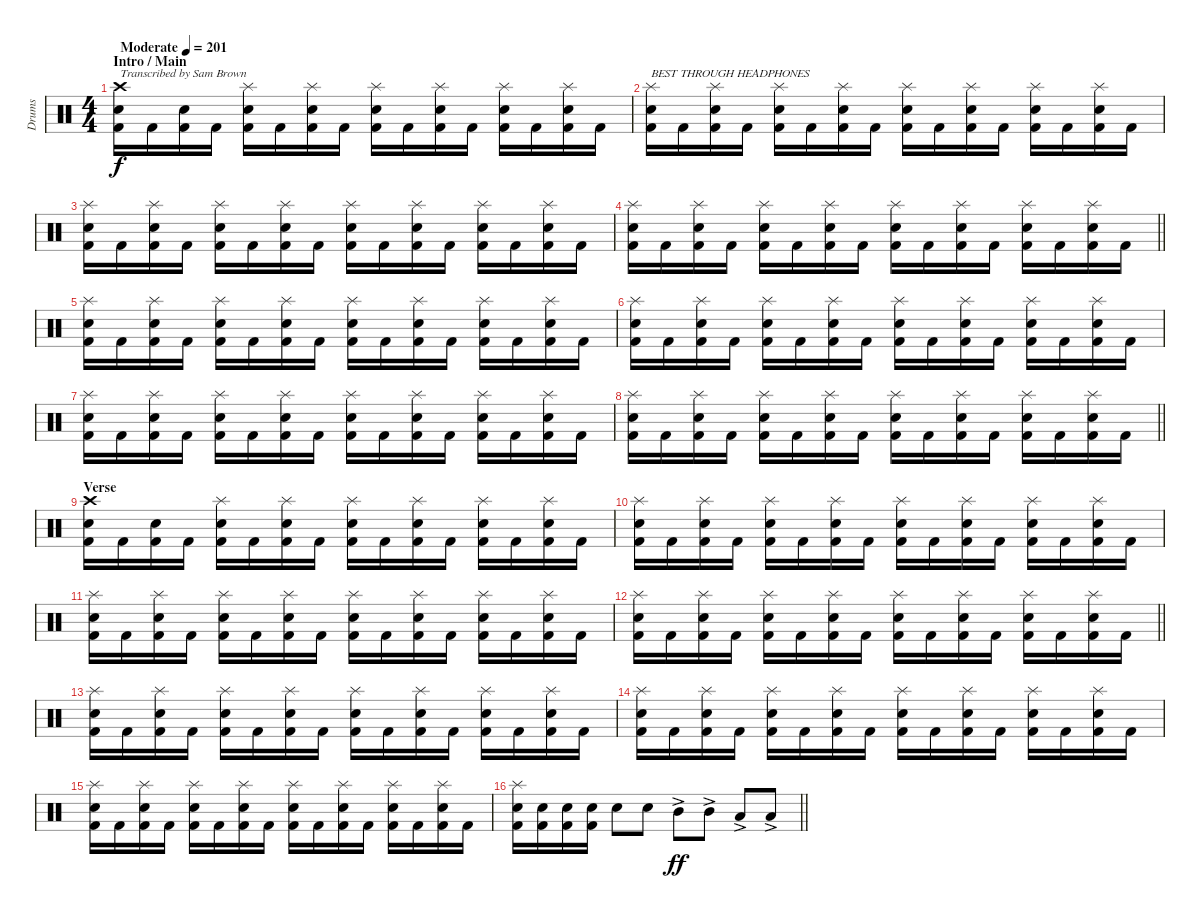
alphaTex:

\track ("Drums" "Drums") {instrument percussion}
\staff {score}
\articulation defaults
\ts (4 4)
\section ("" "Intro / Main")
\tempo (201 "Moderate")
\clef neutral
\ks c
("Kick (hit) 2" "Snare (hit) 2" "Crash high (hit)").16{txt "Transcribed by Sam Brown" dy f} "Kick (hit) 2".16 ("Kick (hit) 2" "Snare (hit) 2").16 "Kick (hit) 2".16 ("Kick (hit) 2" "Snare (hit) 2" "Splash (hit)").16 "Kick (hit) 2".16 ("Kick (hit) 2" "Snare (hit) 2" "Splash (hit)").16 "Kick (hit) 2".16 ("Kick (hit) 2" "Snare (hit) 2" "Splash (hit)").16 "Kick (hit) 2".16 ("Kick (hit) 2" "Snare (hit) 2" "Splash (hit)").16 "Kick (hit) 2".16 ("Kick (hit) 2" "Snare (hit) 2" "Splash (hit)").16 "Kick (hit) 2".16 ("Kick (hit) 2" "Snare (hit) 2" "Splash (hit)").16 "Kick (hit) 2".16 |
("Kick (hit) 2" "Snare (hit) 2" "Splash (hit)").16{txt "BEST THROUGH HEADPHONES"} "Kick (hit) 2".16 ("Kick (hit) 2" "Snare (hit) 2" "Splash (hit)").16 "Kick (hit) 2".16 ("Kick (hit) 2" "Snare (hit) 2" "Splash (hit)").16 "Kick (hit) 2".16 ("Kick (hit) 2" "Snare (hit) 2" "Splash (hit)").16 "Kick (hit) 2".16 ("Kick (hit) 2" "Snare (hit) 2" "Splash (hit)").16 "Kick (hit) 2".16 ("Kick (hit) 2" "Snare (hit) 2" "Splash (hit)").16 "Kick (hit) 2".16 ("Kick (hit) 2" "Snare (hit) 2" "Splash (hit)").16 "Kick (hit) 2".16 ("Kick (hit) 2" "Snare (hit) 2" "Splash (hit)").16 "Kick (hit) 2".16 |
("Kick (hit) 2" "Snare (hit) 2" "Splash (hit)").16 "Kick (hit) 2".16 ("Kick (hit) 2" "Snare (hit) 2" "Splash (hit)").16 "Kick (hit) 2".16 ("Kick (hit) 2" "Snare (hit) 2" "Splash (hit)").16 "Kick (hit) 2".16 ("Kick (hit) 2" "Snare (hit) 2" "Splash (hit)").16 "Kick (hit) 2".16 ("Kick (hit) 2" "Snare (hit) 2" "Splash (hit)").16 "Kick (hit) 2".16 ("Kick (hit) 2" "Snare (hit) 2" "Splash (hit)").16 "Kick (hit) 2".16 ("Kick (hit) 2" "Snare (hit) 2" "Splash (hit)").16 "Kick (hit) 2".16 ("Kick (hit) 2" "Snare (hit) 2" "Splash (hit)").16 "Kick (hit) 2".16 |
\barLineRight lightlight
("Kick (hit) 2" "Snare (hit) 2" "Splash (hit)").16 "Kick (hit) 2".16 ("Kick (hit) 2" "Snare (hit) 2" "Splash (hit)").16 "Kick (hit) 2".16 ("Kick (hit) 2" "Snare (hit) 2" "Splash (hit)").16 "Kick (hit) 2".16 ("Kick (hit) 2" "Snare (hit) 2" "Splash (hit)").16 "Kick (hit) 2".16 ("Kick (hit) 2" "Snare (hit) 2" "Splash (hit)").16 "Kick (hit) 2".16 ("Kick (hit) 2" "Snare (hit) 2" "Splash (hit)").16 "Kick (hit) 2".16 ("Kick (hit) 2" "Snare (hit) 2" "Splash (hit)").16 "Kick (hit) 2".16 ("Kick (hit) 2" "Snare (hit) 2" "Splash (hit)").16 "Kick (hit) 2".16 |
\section ("" "")
("Kick (hit) 2" "Snare (hit) 2" "Splash (hit)").16 "Kick (hit) 2".16 ("Kick (hit) 2" "Snare (hit) 2" "Splash (hit)").16 "Kick (hit) 2".16 ("Kick (hit) 2" "Snare (hit) 2" "Splash (hit)").16 "Kick (hit) 2".16 ("Kick (hit) 2" "Snare (hit) 2" "Splash (hit)").16 "Kick (hit) 2".16 ("Kick (hit) 2" "Snare (hit) 2" "Splash (hit)").16 "Kick (hit) 2".16 ("Kick (hit) 2" "Snare (hit) 2" "Splash (hit)").16 "Kick (hit) 2".16 ("Kick (hit) 2" "Snare (hit) 2" "Splash (hit)").16 "Kick (hit) 2".16 ("Kick (hit) 2" "Snare (hit) 2" "Splash (hit)").16 "Kick (hit) 2".16 |
("Kick (hit) 2" "Snare (hit) 2" "Splash (hit)").16 "Kick (hit) 2".16 ("Kick (hit) 2" "Snare (hit) 2" "Splash (hit)").16 "Kick (hit) 2".16 ("Kick (hit) 2" "Snare (hit) 2" "Splash (hit)").16 "Kick (hit) 2".16 ("Kick (hit) 2" "Snare (hit) 2" "Splash (hit)").16 "Kick (hit) 2".16 ("Kick (hit) 2" "Snare (hit) 2" "Splash (hit)").16 "Kick (hit) 2".16 ("Kick (hit) 2" "Snare (hit) 2" "Splash (hit)").16 "Kick (hit) 2".16 ("Kick (hit) 2" "Snare (hit) 2" "Splash (hit)").16 "Kick (hit) 2".16 ("Kick (hit) 2" "Snare (hit) 2" "Splash (hit)").16 "Kick (hit) 2".16 |
("Kick (hit) 2" "Snare (hit) 2" "Splash (hit)").16 "Kick (hit) 2".16 ("Kick (hit) 2" "Snare (hit) 2" "Splash (hit)").16 "Kick (hit) 2".16 ("Kick (hit) 2" "Snare (hit) 2" "Splash (hit)").16 "Kick (hit) 2".16 ("Kick (hit) 2" "Snare (hit) 2" "Splash (hit)").16 "Kick (hit) 2".16 ("Kick (hit) 2" "Snare (hit) 2" "Splash (hit)").16 "Kick (hit) 2".16 ("Kick (hit) 2" "Snare (hit) 2" "Splash (hit)").16 "Kick (hit) 2".16 ("Kick (hit) 2" "Snare (hit) 2" "Splash (hit)").16 "Kick (hit) 2".16 ("Kick (hit) 2" "Snare (hit) 2" "Splash (hit)").16 "Kick (hit) 2".16 |
\barLineRight lightlight
("Kick (hit) 2" "Snare (hit) 2" "Splash (hit)").16 "Kick (hit) 2".16 ("Kick (hit) 2" "Snare (hit) 2" "Splash (hit)").16 "Kick (hit) 2".16 ("Kick (hit) 2" "Snare (hit) 2" "Splash (hit)").16 "Kick (hit) 2".16 ("Kick (hit) 2" "Snare (hit) 2" "Splash (hit)").16 "Kick (hit) 2".16 ("Kick (hit) 2" "Snare (hit) 2" "Splash (hit)").16 "Kick (hit) 2".16 ("Kick (hit) 2" "Snare (hit) 2" "Splash (hit)").16 "Kick (hit) 2".16 ("Kick (hit) 2" "Snare (hit) 2" "Splash (hit)").16 "Kick (hit) 2".16 ("Kick (hit) 2" "Snare (hit) 2" "Splash (hit)").16 "Kick (hit) 2".16 |
\section ("" "Verse")
("Kick (hit) 2" "Snare (hit) 2" "Crash high (hit)").16 "Kick (hit) 2".16 ("Kick (hit) 2" "Snare (hit) 2").16 "Kick (hit) 2".16 ("Kick (hit) 2" "Snare (hit) 2" "Splash (hit)").16 "Kick (hit) 2".16 ("Kick (hit) 2" "Snare (hit) 2" "Splash (hit)").16 "Kick (hit) 2".16 ("Kick (hit) 2" "Snare (hit) 2" "Splash (hit)").16 "Kick (hit) 2".16 ("Kick (hit) 2" "Snare (hit) 2" "Splash (hit)").16 "Kick (hit) 2".16 ("Kick (hit) 2" "Snare (hit) 2" "Splash (hit)").16 "Kick (hit) 2".16 ("Kick (hit) 2" "Snare (hit) 2" "Splash (hit)").16 "Kick (hit) 2".16 |
("Kick (hit) 2" "Snare (hit) 2" "Splash (hit)").16 "Kick (hit) 2".16 ("Kick (hit) 2" "Snare (hit) 2" "Splash (hit)").16 "Kick (hit) 2".16 ("Kick (hit) 2" "Snare (hit) 2" "Splash (hit)").16 "Kick (hit) 2".16 ("Kick (hit) 2" "Snare (hit) 2" "Splash (hit)").16 "Kick (hit) 2".16 ("Kick (hit) 2" "Snare (hit) 2" "Splash (hit)").16 "Kick (hit) 2".16 ("Kick (hit) 2" "Snare (hit) 2" "Splash (hit)").16 "Kick (hit) 2".16 ("Kick (hit) 2" "Snare (hit) 2" "Splash (hit)").16 "Kick (hit) 2".16 ("Kick (hit) 2" "Snare (hit) 2" "Splash (hit)").16 "Kick (hit) 2".16 |
("Kick (hit) 2" "Snare (hit) 2" "Splash (hit)").16 "Kick (hit) 2".16 ("Kick (hit) 2" "Snare (hit) 2" "Splash (hit)").16 "Kick (hit) 2".16 ("Kick (hit) 2" "Snare (hit) 2" "Splash (hit)").16 "Kick (hit) 2".16 ("Kick (hit) 2" "Snare (hit) 2" "Splash (hit)").16 "Kick (hit) 2".16 ("Kick (hit) 2" "Snare (hit) 2" "Splash (hit)").16 "Kick (hit) 2".16 ("Kick (hit) 2" "Snare (hit) 2" "Splash (hit)").16 "Kick (hit) 2".16 ("Kick (hit) 2" "Snare (hit) 2" "Splash (hit)").16 "Kick (hit) 2".16 ("Kick (hit) 2" "Snare (hit) 2" "Splash (hit)").16 "Kick (hit) 2".16 |
\barLineRight lightlight
("Kick (hit) 2" "Snare (hit) 2" "Splash (hit)").16 "Kick (hit) 2".16 ("Kick (hit) 2" "Snare (hit) 2" "Splash (hit)").16 "Kick (hit) 2".16 ("Kick (hit) 2" "Snare (hit) 2" "Splash (hit)").16 "Kick (hit) 2".16 ("Kick (hit) 2" "Snare (hit) 2" "Splash (hit)").16 "Kick (hit) 2".16 ("Kick (hit) 2" "Snare (hit) 2" "Splash (hit)").16 "Kick (hit) 2".16 ("Kick (hit) 2" "Snare (hit) 2" "Splash (hit)").16 "Kick (hit) 2".16 ("Kick (hit) 2" "Snare (hit) 2" "Splash (hit)").16 "Kick (hit) 2".16 ("Kick (hit) 2" "Snare (hit) 2" "Splash (hit)").16 "Kick (hit) 2".16 |
\section ("" "")
("Kick (hit) 2" "Snare (hit) 2" "Splash (hit)").16 "Kick (hit) 2".16 ("Kick (hit) 2" "Snare (hit) 2" "Splash (hit)").16 "Kick (hit) 2".16 ("Kick (hit) 2" "Snare (hit) 2" "Splash (hit)").16 "Kick (hit) 2".16 ("Kick (hit) 2" "Snare (hit) 2" "Splash (hit)").16 "Kick (hit) 2".16 ("Kick (hit) 2" "Snare (hit) 2" "Splash (hit)").16 "Kick (hit) 2".16 ("Kick (hit) 2" "Snare (hit) 2" "Splash (hit)").16 "Kick (hit) 2".16 ("Kick (hit) 2" "Snare (hit) 2" "Splash (hit)").16 "Kick (hit) 2".16 ("Kick (hit) 2" "Snare (hit) 2" "Splash (hit)").16 "Kick (hit) 2".16 |
("Kick (hit) 2" "Snare (hit) 2" "Splash (hit)").16 "Kick (hit) 2".16 ("Kick (hit) 2" "Snare (hit) 2" "Splash (hit)").16 "Kick (hit) 2".16 ("Kick (hit) 2" "Snare (hit) 2" "Splash (hit)").16 "Kick (hit) 2".16 ("Kick (hit) 2" "Snare (hit) 2" "Splash (hit)").16 "Kick (hit) 2".16 ("Kick (hit) 2" "Snare (hit) 2" "Splash (hit)").16 "Kick (hit) 2".16 ("Kick (hit) 2" "Snare (hit) 2" "Splash (hit)").16 "Kick (hit) 2".16 ("Kick (hit) 2" "Snare (hit) 2" "Splash (hit)").16 "Kick (hit) 2".16 ("Kick (hit) 2" "Snare (hit) 2" "Splash (hit)").16 "Kick (hit) 2".16 |
("Kick (hit) 2" "Snare (hit) 2" "Splash (hit)").16 "Kick (hit) 2".16 ("Kick (hit) 2" "Snare (hit) 2" "Splash (hit)").16 "Kick (hit) 2".16 ("Kick (hit) 2" "Snare (hit) 2" "Splash (hit)").16 "Kick (hit) 2".16 ("Kick (hit) 2" "Snare (hit) 2" "Splash (hit)").16 "Kick (hit) 2".16 ("Kick (hit) 2" "Snare (hit) 2" "Splash (hit)").16 "Kick (hit) 2".16 ("Kick (hit) 2" "Snare (hit) 2" "Splash (hit)").16 "Kick (hit) 2".16 ("Kick (hit) 2" "Snare (hit) 2" "Splash (hit)").16 "Kick (hit) 2".16 ("Kick (hit) 2" "Snare (hit) 2" "Splash (hit)").16 "Kick (hit) 2".16 |
\barLineRight lightlight
("Kick (hit) 2" "Snare (hit) 2" "Splash (hit)").16 ("Kick (hit) 2" "Snare (hit) 2").16 ("Kick (hit) 2" "Snare (hit) 2").16 ("Kick (hit) 2" "Snare (hit) 2").16 "Snare (hit) 2".8 "Snare (hit) 2".8 "Mid Tom (hit)"{ac}.8{dy ff} "Mid Tom (hit)"{ac}.8 "Low Tom (hit)"{ac}.8 "Low Tom (hit)"{ac}.8
